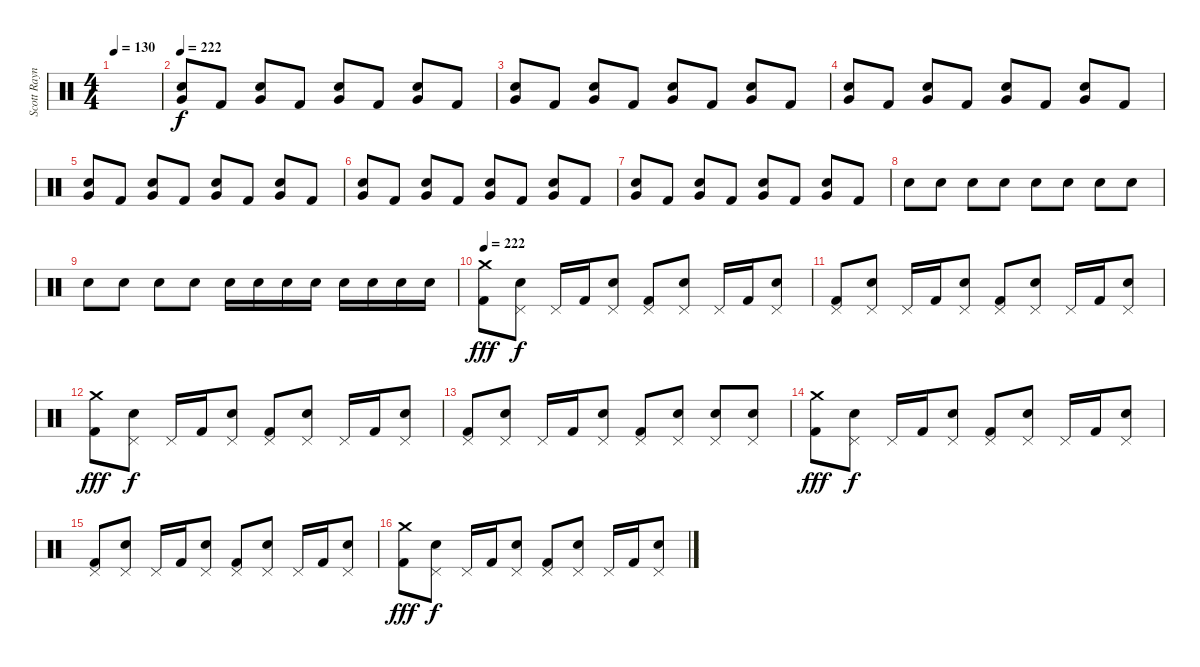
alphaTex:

\track ("Scott Raynor - Bateria/Drums" "Scott Rayn") {instrument percussion}
\staff {score}
\articulation defaults
\ts (4 4)
\tempo 130
\clef neutral
\ks c
|
\tempo 222
("Electric Snare (hit)" "Very Low Tom (hit)").8 "Kick (hit) 2".8 ("Electric Snare (hit)" "Very Low Tom (hit)").8 "Kick (hit) 2".8 ("Electric Snare (hit)" "Very Low Tom (hit)").8 "Kick (hit) 2".8 ("Electric Snare (hit)" "Very Low Tom (hit)").8 "Kick (hit) 2".8 |
("Electric Snare (hit)" "Very Low Tom (hit)").8 "Kick (hit) 2".8 ("Electric Snare (hit)" "Very Low Tom (hit)").8 "Kick (hit) 2".8 ("Electric Snare (hit)" "Very Low Tom (hit)").8 "Kick (hit) 2".8 ("Electric Snare (hit)" "Very Low Tom (hit)").8 "Kick (hit) 2".8 |
("Electric Snare (hit)" "Very Low Tom (hit)").8 "Kick (hit) 2".8 ("Electric Snare (hit)" "Very Low Tom (hit)").8 "Kick (hit) 2".8 ("Electric Snare (hit)" "Very Low Tom (hit)").8 "Kick (hit) 2".8 ("Electric Snare (hit)" "Very Low Tom (hit)").8 "Kick (hit) 2".8 |
("Electric Snare (hit)" "Very Low Tom (hit)").8 "Kick (hit) 2".8 ("Electric Snare (hit)" "Very Low Tom (hit)").8 "Kick (hit) 2".8 ("Electric Snare (hit)" "Very Low Tom (hit)").8 "Kick (hit) 2".8 ("Electric Snare (hit)" "Very Low Tom (hit)").8 "Kick (hit) 2".8 |
("Electric Snare (hit)" "Very Low Tom (hit)").8 "Kick (hit) 2".8 ("Electric Snare (hit)" "Very Low Tom (hit)").8 "Kick (hit) 2".8 ("Electric Snare (hit)" "Very Low Tom (hit)").8 "Kick (hit) 2".8 ("Electric Snare (hit)" "Very Low Tom (hit)").8 "Kick (hit) 2".8 |
("Electric Snare (hit)" "Very Low Tom (hit)").8 "Kick (hit) 2".8 ("Electric Snare (hit)" "Very Low Tom (hit)").8 "Kick (hit) 2".8 ("Electric Snare (hit)" "Very Low Tom (hit)").8 "Kick (hit) 2".8 ("Electric Snare (hit)" "Very Low Tom (hit)").8 "Kick (hit) 2".8 |
"Electric Snare (hit)".8 "Electric Snare (hit)".8 "Electric Snare (hit)".8 "Electric Snare (hit)".8 "Electric Snare (hit)".8 "Electric Snare (hit)".8 "Electric Snare (hit)".8 "Electric Snare (hit)".8 |
"Electric Snare (hit)".8 "Electric Snare (hit)".8 "Electric Snare (hit)".8 "Electric Snare (hit)".8 "Electric Snare (hit)".16 "Electric Snare (hit)".16 "Electric Snare (hit)".16 "Electric Snare (hit)".16 "Electric Snare (hit)".16 "Electric Snare (hit)".16 "Electric Snare (hit)".16 "Electric Snare (hit)".16 |
\tempo 222
("Crash medium (hit)" "Kick (hit) 2").8{dy fff} ("Pedal Hi-Hat (hit)" "Electric Snare (hit)").8{dy f} "Pedal Hi-Hat (hit)".16 "Kick (hit) 2".16 ("Pedal Hi-Hat (hit)" "Electric Snare (hit)").8 ("Pedal Hi-Hat (hit)" "Kick (hit) 2").8 ("Pedal Hi-Hat (hit)" "Electric Snare (hit)").8 "Pedal Hi-Hat (hit)".16 "Kick (hit) 2".16 ("Pedal Hi-Hat (hit)" "Electric Snare (hit)").8 |
("Pedal Hi-Hat (hit)" "Kick (hit) 2").8 ("Pedal Hi-Hat (hit)" "Electric Snare (hit)").8 "Pedal Hi-Hat (hit)".16 "Kick (hit) 2".16 ("Pedal Hi-Hat (hit)" "Electric Snare (hit)").8 ("Pedal Hi-Hat (hit)" "Kick (hit) 2").8 ("Pedal Hi-Hat (hit)" "Electric Snare (hit)").8 "Pedal Hi-Hat (hit)".16 "Kick (hit) 2".16 ("Pedal Hi-Hat (hit)" "Electric Snare (hit)").8 |
("Crash medium (hit)" "Kick (hit) 2").8{dy fff} ("Pedal Hi-Hat (hit)" "Electric Snare (hit)").8{dy f} "Pedal Hi-Hat (hit)".16 "Kick (hit) 2".16 ("Pedal Hi-Hat (hit)" "Electric Snare (hit)").8 ("Pedal Hi-Hat (hit)" "Kick (hit) 2").8 ("Pedal Hi-Hat (hit)" "Electric Snare (hit)").8 "Pedal Hi-Hat (hit)".16 "Kick (hit) 2".16 ("Pedal Hi-Hat (hit)" "Electric Snare (hit)").8 |
("Pedal Hi-Hat (hit)" "Kick (hit) 2").8 ("Pedal Hi-Hat (hit)" "Electric Snare (hit)").8 "Pedal Hi-Hat (hit)".16 "Kick (hit) 2".16 ("Pedal Hi-Hat (hit)" "Electric Snare (hit)").8 ("Pedal Hi-Hat (hit)" "Kick (hit) 2").8 ("Pedal Hi-Hat (hit)" "Electric Snare (hit)").8 ("Pedal Hi-Hat (hit)" "Electric Snare (hit)").8 ("Pedal Hi-Hat (hit)" "Electric Snare (hit)").8 |
("Crash medium (hit)" "Kick (hit) 2").8{dy fff} ("Pedal Hi-Hat (hit)" "Electric Snare (hit)").8{dy f} "Pedal Hi-Hat (hit)".16 "Kick (hit) 2".16 ("Pedal Hi-Hat (hit)" "Electric Snare (hit)").8 ("Pedal Hi-Hat (hit)" "Kick (hit) 2").8 ("Pedal Hi-Hat (hit)" "Electric Snare (hit)").8 "Pedal Hi-Hat (hit)".16 "Kick (hit) 2".16 ("Pedal Hi-Hat (hit)" "Electric Snare (hit)").8 |
("Pedal Hi-Hat (hit)" "Kick (hit) 2").8 ("Pedal Hi-Hat (hit)" "Electric Snare (hit)").8 "Pedal Hi-Hat (hit)".16 "Kick (hit) 2".16 ("Pedal Hi-Hat (hit)" "Electric Snare (hit)").8 ("Pedal Hi-Hat (hit)" "Kick (hit) 2").8 ("Pedal Hi-Hat (hit)" "Electric Snare (hit)").8 "Pedal Hi-Hat (hit)".16 "Kick (hit) 2".16 ("Pedal Hi-Hat (hit)" "Electric Snare (hit)").8 |
("Crash medium (hit)" "Kick (hit) 2").8{dy fff} ("Pedal Hi-Hat (hit)" "Electric Snare (hit)").8{dy f} "Pedal Hi-Hat (hit)".16 "Kick (hit) 2".16 ("Pedal Hi-Hat (hit)" "Electric Snare (hit)").8 ("Pedal Hi-Hat (hit)" "Kick (hit) 2").8 ("Pedal Hi-Hat (hit)" "Electric Snare (hit)").8 "Pedal Hi-Hat (hit)".16 "Kick (hit) 2".16 ("Pedal Hi-Hat (hit)" "Electric Snare (hit)").8
